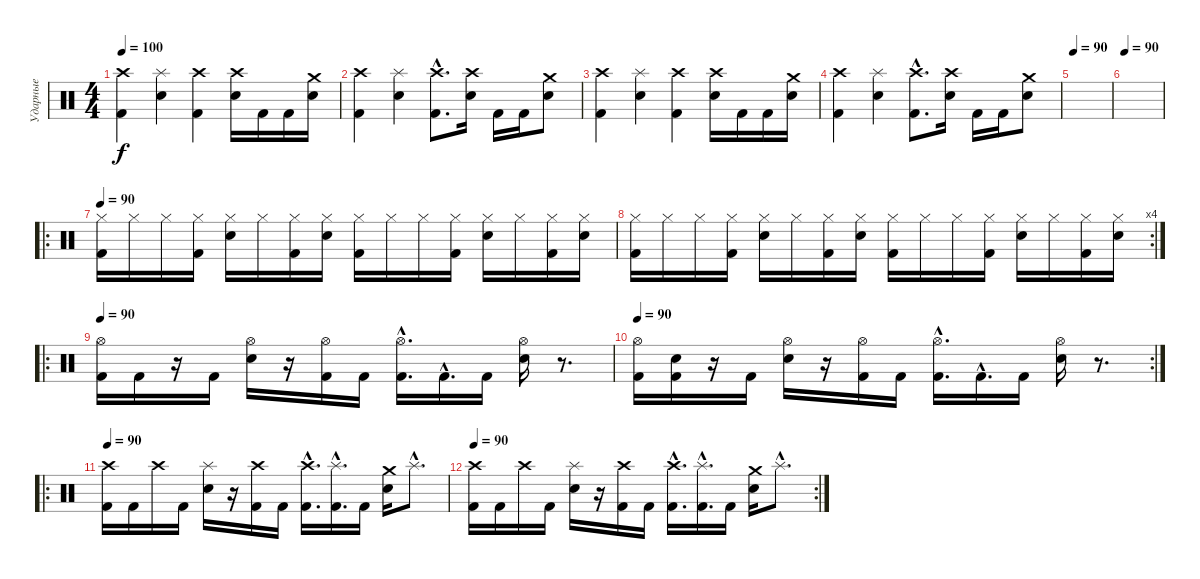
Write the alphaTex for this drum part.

\track ("Ударные" "Ударные") {instrument percussion}
\staff {score}
\articulation defaults
\ts (4 4)
\tempo 100
\clef neutral
\ks c
("Crash high (hit)" "Kick (hit) 2").4{dy f} ("Splash (hit)" "Electric Snare (hit)").4 ("Crash high (hit)" "Kick (hit) 2").4 ("Crash high (hit)" "Electric Snare (hit)").16 "Kick (hit) 2".16 "Kick (hit) 2".16 ("Crash medium (hit)" "Electric Snare (hit)").16 |
("Crash high (hit)" "Kick (hit) 2").4 ("Splash (hit)" "Electric Snare (hit)").4 ("Crash high (hit)"{hac} "Kick (hit) 2"{hac}).8{d} ("Crash high (hit)" "Electric Snare (hit)").16 "Kick (hit) 2".16 "Kick (hit) 2".16 ("Crash medium (hit)" "Electric Snare (hit)").8 |
("Crash high (hit)" "Kick (hit) 2").4 ("Splash (hit)" "Electric Snare (hit)").4 ("Crash high (hit)" "Kick (hit) 2").4 ("Crash high (hit)" "Electric Snare (hit)").16 "Kick (hit) 2".16 "Kick (hit) 2".16 ("Crash medium (hit)" "Electric Snare (hit)").16 |
("Crash high (hit)" "Kick (hit) 2").4 ("Splash (hit)" "Electric Snare (hit)").4 ("Crash high (hit)"{hac} "Kick (hit) 2"{hac}).8{d} ("Crash high (hit)" "Electric Snare (hit)").16 "Kick (hit) 2".16 "Kick (hit) 2".16 ("Crash medium (hit)" "Electric Snare (hit)").8 |
\tempo 90
|
\tempo 90
|
\ro
\tempo 90
("Hi-Hat (closed)" "Kick (hit) 2").16 "Hi-Hat (closed)".16 "Hi-Hat (closed)".16 ("Hi-Hat (closed)" "Kick (hit) 2").16 ("Hi-Hat (closed)" "Electric Snare (hit)").16 "Hi-Hat (closed)".16 ("Hi-Hat (closed)" "Kick (hit) 2").16 ("Hi-Hat (closed)" "Electric Snare (hit)").16 ("Hi-Hat (closed)" "Kick (hit) 2").16 "Hi-Hat (closed)".16 "Hi-Hat (closed)".16 ("Hi-Hat (closed)" "Kick (hit) 2").16 ("Hi-Hat (closed)" "Electric Snare (hit)").16 "Hi-Hat (closed)".16 ("Hi-Hat (closed)" "Kick (hit) 2").16 ("Hi-Hat (closed)" "Electric Snare (hit)").16 |
\rc 4
("Hi-Hat (closed)" "Kick (hit) 2").16 "Hi-Hat (closed)".16 "Hi-Hat (closed)".16 ("Hi-Hat (closed)" "Kick (hit) 2").16 ("Hi-Hat (closed)" "Electric Snare (hit)").16 "Hi-Hat (closed)".16 ("Hi-Hat (closed)" "Kick (hit) 2").16 ("Hi-Hat (closed)" "Electric Snare (hit)").16 ("Hi-Hat (closed)" "Kick (hit) 2").16 "Hi-Hat (closed)".16 "Hi-Hat (closed)".16 ("Hi-Hat (closed)" "Kick (hit) 2").16 ("Hi-Hat (closed)" "Electric Snare (hit)").16 "Hi-Hat (closed)".16 ("Hi-Hat (closed)" "Kick (hit) 2").16 ("Hi-Hat (closed)" "Electric Snare (hit)").16 |
\ro
\tempo 90
("Hi-Hat (open)" "Kick (hit) 2").16 "Kick (hit) 2".16 r.16 "Kick (hit) 2".16 ("Hi-Hat (open)" "Electric Snare (hit)").16 r.16 ("Hi-Hat (open)" "Kick (hit) 2").16 "Kick (hit) 2".16 ("Hi-Hat (open)"{hac} "Kick (hit) 2"{hac}).16{d} "Kick (hit) 2"{hac}.16{d} "Kick (hit) 2".16 ("Hi-Hat (open)" "Electric Snare (hit)").16 r.8{d} |
\rc 2
\tempo 90
("Hi-Hat (open)" "Kick (hit) 2").16 ("Snare (hit)" "Kick (hit) 2").16 r.16 "Kick (hit) 2".16 ("Hi-Hat (open)" "Electric Snare (hit)").16 r.16 ("Hi-Hat (open)" "Kick (hit) 2").16 "Kick (hit) 2".16 ("Hi-Hat (open)"{hac} "Kick (hit) 2"{hac}).16{d} "Kick (hit) 2"{hac}.16{d} "Kick (hit) 2".16 ("Hi-Hat (open)" "Electric Snare (hit)").16 r.8{d} |
\ro
\tempo 90
("Crash high (hit)" "Kick (hit) 2").16 "Kick (hit) 2".16 "Crash high (hit)".16 "Kick (hit) 2".16 ("Splash (hit)" "Electric Snare (hit)").16 r.16 ("Crash high (hit)" "Kick (hit) 2").16 "Kick (hit) 2".16 ("Crash high (hit)"{hac} "Kick (hit) 2"{hac}).16{d} ("Splash (hit)"{hac} "Kick (hit) 2"{hac}).16{d} "Kick (hit) 2".16 ("Crash medium (hit)" "Electric Snare (hit)").16 "Splash (hit)"{hac}.8{d} |
\rc 2
\tempo 90
("Crash high (hit)" "Kick (hit) 2").16 "Kick (hit) 2".16 "Crash high (hit)".16 "Kick (hit) 2".16 ("Splash (hit)" "Electric Snare (hit)").16 r.16 ("Crash high (hit)" "Kick (hit) 2").16 "Kick (hit) 2".16 ("Crash high (hit)"{hac} "Kick (hit) 2"{hac}).16{d} ("Splash (hit)"{hac} "Kick (hit) 2"{hac}).16{d} "Kick (hit) 2".16 ("Crash medium (hit)" "Electric Snare (hit)").16 "Splash (hit)"{hac}.8{d}
